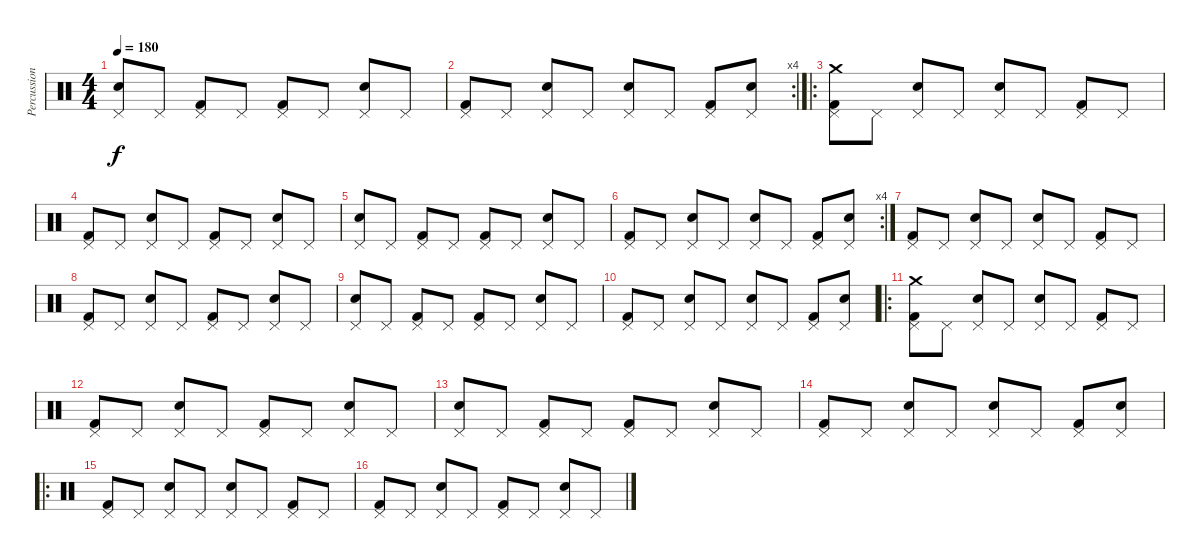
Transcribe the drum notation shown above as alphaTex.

\track ("Percussion" "Percussion") {instrument percussion}
\staff {score}
\articulation defaults
\ts (4 4)
\tempo 180
\clef neutral
\ks c
("Pedal Hi-Hat (hit)" "Electric Snare (hit)").8{dy f} "Pedal Hi-Hat (hit)".8 ("Pedal Hi-Hat (hit)" "Kick (hit) 2").8 "Pedal Hi-Hat (hit)".8 ("Pedal Hi-Hat (hit)" "Kick (hit) 2").8 "Pedal Hi-Hat (hit)".8 ("Pedal Hi-Hat (hit)" "Electric Snare (hit)").8 "Pedal Hi-Hat (hit)".8 |
\rc 4
("Pedal Hi-Hat (hit)" "Kick (hit) 2").8 "Pedal Hi-Hat (hit)".8 ("Pedal Hi-Hat (hit)" "Electric Snare (hit)").8 "Pedal Hi-Hat (hit)".8 ("Pedal Hi-Hat (hit)" "Electric Snare (hit)").8 "Pedal Hi-Hat (hit)".8 ("Pedal Hi-Hat (hit)" "Kick (hit) 2").8 ("Pedal Hi-Hat (hit)" "Electric Snare (hit)").8 |
\ro
("Crash medium (hit)" "Pedal Hi-Hat (hit)" "Kick (hit) 2").8 "Pedal Hi-Hat (hit)".8 ("Pedal Hi-Hat (hit)" "Electric Snare (hit)").8 "Pedal Hi-Hat (hit)".8 ("Pedal Hi-Hat (hit)" "Electric Snare (hit)").8 "Pedal Hi-Hat (hit)".8 ("Pedal Hi-Hat (hit)" "Kick (hit) 2").8 "Pedal Hi-Hat (hit)".8 |
("Pedal Hi-Hat (hit)" "Kick (hit) 2").8 "Pedal Hi-Hat (hit)".8 ("Pedal Hi-Hat (hit)" "Electric Snare (hit)").8 "Pedal Hi-Hat (hit)".8 ("Pedal Hi-Hat (hit)" "Kick (hit) 2").8 "Pedal Hi-Hat (hit)".8 ("Pedal Hi-Hat (hit)" "Electric Snare (hit)").8 "Pedal Hi-Hat (hit)".8 |
("Pedal Hi-Hat (hit)" "Electric Snare (hit)").8 "Pedal Hi-Hat (hit)".8 ("Pedal Hi-Hat (hit)" "Kick (hit) 2").8 "Pedal Hi-Hat (hit)".8 ("Pedal Hi-Hat (hit)" "Kick (hit) 2").8 "Pedal Hi-Hat (hit)".8 ("Pedal Hi-Hat (hit)" "Electric Snare (hit)").8 "Pedal Hi-Hat (hit)".8 |
\rc 4
("Pedal Hi-Hat (hit)" "Kick (hit) 2").8 "Pedal Hi-Hat (hit)".8 ("Pedal Hi-Hat (hit)" "Electric Snare (hit)").8 "Pedal Hi-Hat (hit)".8 ("Pedal Hi-Hat (hit)" "Electric Snare (hit)").8 "Pedal Hi-Hat (hit)".8 ("Pedal Hi-Hat (hit)" "Kick (hit) 2").8 ("Pedal Hi-Hat (hit)" "Electric Snare (hit)").8 |
("Pedal Hi-Hat (hit)" "Kick (hit) 2").8 "Pedal Hi-Hat (hit)".8 ("Pedal Hi-Hat (hit)" "Electric Snare (hit)").8 "Pedal Hi-Hat (hit)".8 ("Pedal Hi-Hat (hit)" "Electric Snare (hit)").8 "Pedal Hi-Hat (hit)".8 ("Pedal Hi-Hat (hit)" "Kick (hit) 2").8 "Pedal Hi-Hat (hit)".8 |
("Pedal Hi-Hat (hit)" "Kick (hit) 2").8 "Pedal Hi-Hat (hit)".8 ("Pedal Hi-Hat (hit)" "Electric Snare (hit)").8 "Pedal Hi-Hat (hit)".8 ("Pedal Hi-Hat (hit)" "Kick (hit) 2").8 "Pedal Hi-Hat (hit)".8 ("Pedal Hi-Hat (hit)" "Electric Snare (hit)").8 "Pedal Hi-Hat (hit)".8 |
("Pedal Hi-Hat (hit)" "Electric Snare (hit)").8 "Pedal Hi-Hat (hit)".8 ("Pedal Hi-Hat (hit)" "Kick (hit) 2").8 "Pedal Hi-Hat (hit)".8 ("Pedal Hi-Hat (hit)" "Kick (hit) 2").8 "Pedal Hi-Hat (hit)".8 ("Pedal Hi-Hat (hit)" "Electric Snare (hit)").8 "Pedal Hi-Hat (hit)".8 |
("Pedal Hi-Hat (hit)" "Kick (hit) 2").8 "Pedal Hi-Hat (hit)".8 ("Pedal Hi-Hat (hit)" "Electric Snare (hit)").8 "Pedal Hi-Hat (hit)".8 ("Pedal Hi-Hat (hit)" "Electric Snare (hit)").8 "Pedal Hi-Hat (hit)".8 ("Pedal Hi-Hat (hit)" "Kick (hit) 2").8 ("Pedal Hi-Hat (hit)" "Electric Snare (hit)").8 |
\ro
("Crash medium (hit)" "Pedal Hi-Hat (hit)" "Kick (hit) 2").8 "Pedal Hi-Hat (hit)".8 ("Pedal Hi-Hat (hit)" "Electric Snare (hit)").8 "Pedal Hi-Hat (hit)".8 ("Pedal Hi-Hat (hit)" "Electric Snare (hit)").8 "Pedal Hi-Hat (hit)".8 ("Pedal Hi-Hat (hit)" "Kick (hit) 2").8 "Pedal Hi-Hat (hit)".8 |
("Pedal Hi-Hat (hit)" "Kick (hit) 2").8 "Pedal Hi-Hat (hit)".8 ("Pedal Hi-Hat (hit)" "Electric Snare (hit)").8 "Pedal Hi-Hat (hit)".8 ("Pedal Hi-Hat (hit)" "Kick (hit) 2").8 "Pedal Hi-Hat (hit)".8 ("Pedal Hi-Hat (hit)" "Electric Snare (hit)").8 "Pedal Hi-Hat (hit)".8 |
("Pedal Hi-Hat (hit)" "Electric Snare (hit)").8 "Pedal Hi-Hat (hit)".8 ("Pedal Hi-Hat (hit)" "Kick (hit) 2").8 "Pedal Hi-Hat (hit)".8 ("Pedal Hi-Hat (hit)" "Kick (hit) 2").8 "Pedal Hi-Hat (hit)".8 ("Pedal Hi-Hat (hit)" "Electric Snare (hit)").8 "Pedal Hi-Hat (hit)".8 |
("Pedal Hi-Hat (hit)" "Kick (hit) 2").8 "Pedal Hi-Hat (hit)".8 ("Pedal Hi-Hat (hit)" "Electric Snare (hit)").8 "Pedal Hi-Hat (hit)".8 ("Pedal Hi-Hat (hit)" "Electric Snare (hit)").8 "Pedal Hi-Hat (hit)".8 ("Pedal Hi-Hat (hit)" "Kick (hit) 2").8 ("Pedal Hi-Hat (hit)" "Electric Snare (hit)").8 |
\ro
("Pedal Hi-Hat (hit)" "Kick (hit) 2").8 "Pedal Hi-Hat (hit)".8 ("Pedal Hi-Hat (hit)" "Electric Snare (hit)").8 "Pedal Hi-Hat (hit)".8 ("Pedal Hi-Hat (hit)" "Electric Snare (hit)").8 "Pedal Hi-Hat (hit)".8 ("Pedal Hi-Hat (hit)" "Kick (hit) 2").8 "Pedal Hi-Hat (hit)".8 |
("Pedal Hi-Hat (hit)" "Kick (hit) 2").8 "Pedal Hi-Hat (hit)".8 ("Pedal Hi-Hat (hit)" "Electric Snare (hit)").8 "Pedal Hi-Hat (hit)".8 ("Pedal Hi-Hat (hit)" "Kick (hit) 2").8 "Pedal Hi-Hat (hit)".8 ("Pedal Hi-Hat (hit)" "Electric Snare (hit)").8 "Pedal Hi-Hat (hit)".8
